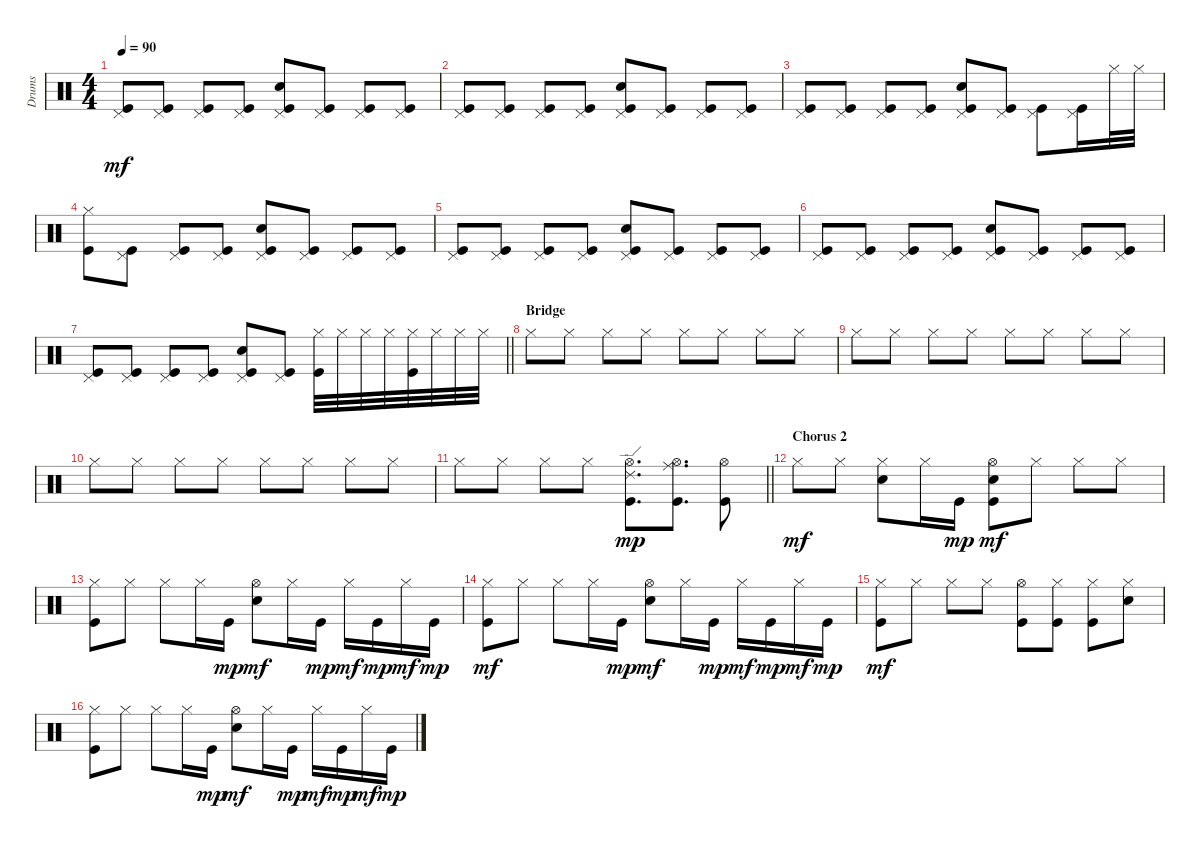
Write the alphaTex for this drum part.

\track ("Drums" "Drums") {instrument percussion}
\staff {score}
\articulation defaults
\ts (4 4)
\tempo 90
\clef neutral
\ks c
("Kick (hit)" "Pedal Hi-Hat (hit)").8{dy mf} ("Kick (hit)" "Pedal Hi-Hat (hit)").8 ("Kick (hit)" "Pedal Hi-Hat (hit)").8 ("Kick (hit)" "Pedal Hi-Hat (hit)").8 ("Kick (hit)" "Electric Snare (hit)" "Pedal Hi-Hat (hit)").8 ("Kick (hit)" "Pedal Hi-Hat (hit)").8 ("Kick (hit)" "Pedal Hi-Hat (hit)").8 ("Kick (hit)" "Pedal Hi-Hat (hit)").8 |
("Kick (hit)" "Pedal Hi-Hat (hit)").8 ("Kick (hit)" "Pedal Hi-Hat (hit)").8 ("Kick (hit)" "Pedal Hi-Hat (hit)").8 ("Kick (hit)" "Pedal Hi-Hat (hit)").8 ("Kick (hit)" "Electric Snare (hit)" "Pedal Hi-Hat (hit)").8 ("Kick (hit)" "Pedal Hi-Hat (hit)").8 ("Kick (hit)" "Pedal Hi-Hat (hit)").8 ("Kick (hit)" "Pedal Hi-Hat (hit)").8 |
("Kick (hit)" "Pedal Hi-Hat (hit)").8 ("Kick (hit)" "Pedal Hi-Hat (hit)").8 ("Kick (hit)" "Pedal Hi-Hat (hit)").8 ("Kick (hit)" "Pedal Hi-Hat (hit)").8 ("Kick (hit)" "Electric Snare (hit)" "Pedal Hi-Hat (hit)").8 ("Kick (hit)" "Pedal Hi-Hat (hit)").8 ("Kick (hit)" "Pedal Hi-Hat (hit)").8 ("Kick (hit)" "Pedal Hi-Hat (hit)").16 "Hi-Hat (closed)".32 "Hi-Hat (closed)".32 |
("Kick (hit)" "Hi-Hat (closed)").8 ("Kick (hit)" "Pedal Hi-Hat (hit)").8 ("Kick (hit)" "Pedal Hi-Hat (hit)").8 ("Kick (hit)" "Pedal Hi-Hat (hit)").8 ("Kick (hit)" "Electric Snare (hit)" "Pedal Hi-Hat (hit)").8 ("Kick (hit)" "Pedal Hi-Hat (hit)").8 ("Kick (hit)" "Pedal Hi-Hat (hit)").8 ("Kick (hit)" "Pedal Hi-Hat (hit)").8 |
("Kick (hit)" "Pedal Hi-Hat (hit)").8 ("Kick (hit)" "Pedal Hi-Hat (hit)").8 ("Kick (hit)" "Pedal Hi-Hat (hit)").8 ("Kick (hit)" "Pedal Hi-Hat (hit)").8 ("Kick (hit)" "Electric Snare (hit)" "Pedal Hi-Hat (hit)").8 ("Kick (hit)" "Pedal Hi-Hat (hit)").8 ("Kick (hit)" "Pedal Hi-Hat (hit)").8 ("Kick (hit)" "Pedal Hi-Hat (hit)").8 |
("Kick (hit)" "Pedal Hi-Hat (hit)").8 ("Kick (hit)" "Pedal Hi-Hat (hit)").8 ("Kick (hit)" "Pedal Hi-Hat (hit)").8 ("Kick (hit)" "Pedal Hi-Hat (hit)").8 ("Kick (hit)" "Electric Snare (hit)" "Pedal Hi-Hat (hit)").8 ("Kick (hit)" "Pedal Hi-Hat (hit)").8 ("Kick (hit)" "Pedal Hi-Hat (hit)").8 ("Kick (hit)" "Pedal Hi-Hat (hit)").8 |
\barLineRight lightlight
("Kick (hit)" "Pedal Hi-Hat (hit)").8 ("Kick (hit)" "Pedal Hi-Hat (hit)").8 ("Kick (hit)" "Pedal Hi-Hat (hit)").8 ("Kick (hit)" "Pedal Hi-Hat (hit)").8 ("Kick (hit)" "Electric Snare (hit)" "Pedal Hi-Hat (hit)").8 ("Kick (hit)" "Pedal Hi-Hat (hit)").8 ("Kick (hit)" "Hi-Hat (closed)").32 "Hi-Hat (closed)".32 "Hi-Hat (closed)".32 "Hi-Hat (closed)".32 ("Kick (hit)" "Hi-Hat (closed)").32 "Hi-Hat (closed)".32 "Hi-Hat (closed)".32 "Hi-Hat (closed)".32 |
\section ("" "Bridge")
"Hi-Hat (closed)".8 "Hi-Hat (closed)".8 "Hi-Hat (closed)".8 "Hi-Hat (closed)".8 "Hi-Hat (closed)".8 "Hi-Hat (closed)".8 "Hi-Hat (closed)".8 "Hi-Hat (closed)".8 |
"Hi-Hat (closed)".8 "Hi-Hat (closed)".8 "Hi-Hat (closed)".8 "Hi-Hat (closed)".8 "Hi-Hat (closed)".8 "Hi-Hat (closed)".8 "Hi-Hat (closed)".8 "Hi-Hat (closed)".8 |
"Hi-Hat (closed)".8 "Hi-Hat (closed)".8 "Hi-Hat (closed)".8 "Hi-Hat (closed)".8 "Hi-Hat (closed)".8 "Hi-Hat (closed)".8 "Hi-Hat (closed)".8 "Hi-Hat (closed)".8 |
\barLineRight lightlight "Hi-Hat (closed)".8 "Hi-Hat (closed)".8 "Hi-Hat (closed)".8 "Hi-Hat (closed)".8
("Kick (hit)" "Ride (edge) 2" "Hi-Hat (open)").8{d dy mp} ("Kick (hit)" "Ride (middle)" "Hi-Hat (open)").8{d} ("Kick (hit)" "Hi-Hat (open)").8 |
\section ("" "Chorus 2")
"Hi-Hat (closed)".8{dy mf} "Hi-Hat (closed)".8 ("Electric Snare (hit)" "Hi-Hat (closed)").8 "Hi-Hat (closed)".16 "Kick (hit)".16{dy mp} ("Kick (hit)" "Electric Snare (hit)" "Hi-Hat (open)").8{dy mf} "Hi-Hat (closed)".8 "Hi-Hat (closed)".8 "Hi-Hat (closed)".8 |
("Kick (hit)" "Hi-Hat (closed)").8 "Hi-Hat (closed)".8 "Hi-Hat (closed)".8 "Hi-Hat (closed)".16 "Kick (hit)".16{dy mp} ("Electric Snare (hit)" "Hi-Hat (open)").8{dy mf} "Hi-Hat (closed)".16 "Kick (hit)".16{dy mp} "Hi-Hat (closed)".16{dy mf} "Kick (hit)".16{dy mp} "Hi-Hat (closed)".16{dy mf} "Kick (hit)".16{dy mp} |
("Kick (hit)" "Hi-Hat (closed)").8{dy mf} "Hi-Hat (closed)".8 "Hi-Hat (closed)".8 "Hi-Hat (closed)".16 "Kick (hit)".16{dy mp} ("Electric Snare (hit)" "Hi-Hat (open)").8{dy mf} "Hi-Hat (closed)".16 "Kick (hit)".16{dy mp} "Hi-Hat (closed)".16{dy mf} "Kick (hit)".16{dy mp} "Hi-Hat (closed)".16{dy mf} "Kick (hit)".16{dy mp} |
("Kick (hit)" "Hi-Hat (closed)").8{dy mf} "Hi-Hat (closed)".8 "Hi-Hat (closed)".8 "Hi-Hat (closed)".8 ("Kick (hit)" "Hi-Hat (open)").8 ("Kick (hit)" "Hi-Hat (closed)").8 ("Kick (hit)" "Hi-Hat (closed)").8 ("Electric Snare (hit)" "Hi-Hat (closed)").8 |
("Kick (hit)" "Hi-Hat (closed)").8 "Hi-Hat (closed)".8 "Hi-Hat (closed)".8 "Hi-Hat (closed)".16 "Kick (hit)".16{dy mp} ("Electric Snare (hit)" "Hi-Hat (open)").8{dy mf} "Hi-Hat (closed)".16 "Kick (hit)".16{dy mp} "Hi-Hat (closed)".16{dy mf} "Kick (hit)".16{dy mp} "Hi-Hat (closed)".16{dy mf} "Kick (hit)".16{dy mp}
